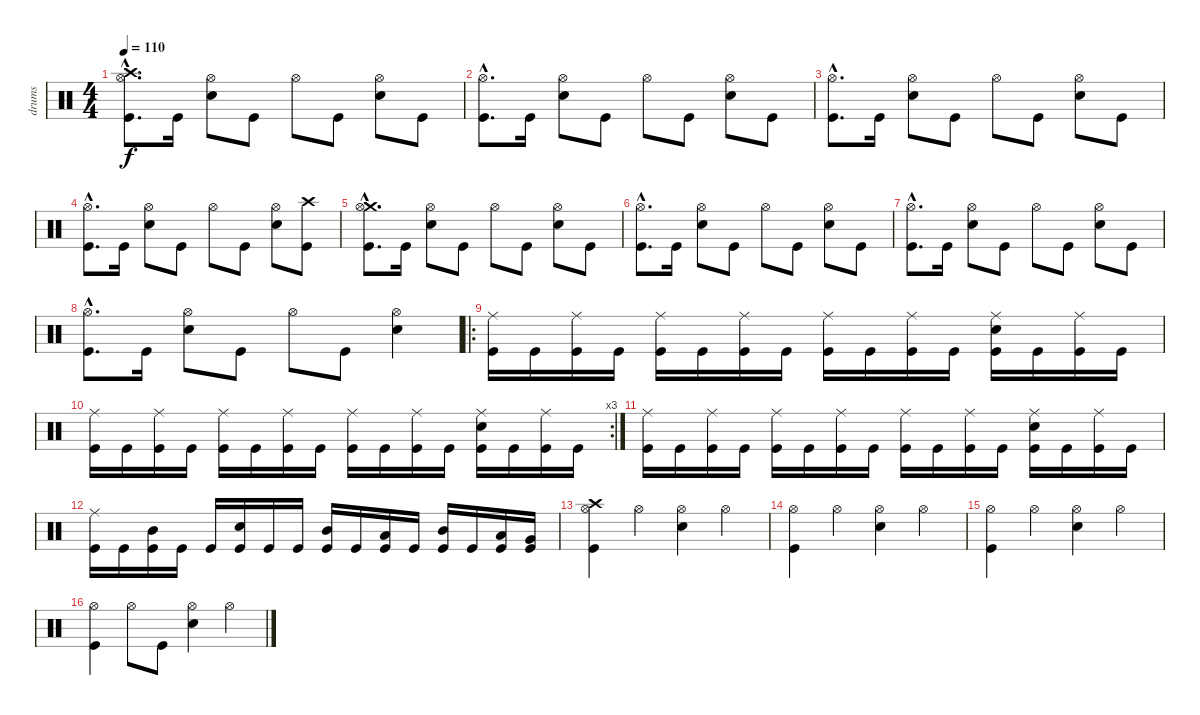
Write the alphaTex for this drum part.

\track ("drums" "drums") {instrument percussion}
\staff {score}
\articulation defaults
\ts (4 4)
\tempo 110
\clef neutral
\ks c
("Crash high (hit)"{hac} "Hi-Hat (open)"{hac} "Kick (hit)"{hac}).8{d dy f} "Kick (hit)".16 ("Hi-Hat (open)" "Snare (hit) 2").8 "Kick (hit)".8 "Hi-Hat (open)".8 "Kick (hit)".8 ("Hi-Hat (open)" "Snare (hit) 2").8 "Kick (hit)".8 |
("Hi-Hat (open)"{hac} "Kick (hit)"{hac}).8{d} "Kick (hit)".16 ("Hi-Hat (open)" "Snare (hit) 2").8 "Kick (hit)".8 "Hi-Hat (open)".8 "Kick (hit)".8 ("Hi-Hat (open)" "Snare (hit) 2").8 "Kick (hit)".8 |
("Hi-Hat (open)"{hac} "Kick (hit)"{hac}).8{d} "Kick (hit)".16 ("Hi-Hat (open)" "Snare (hit) 2").8 "Kick (hit)".8 "Hi-Hat (open)".8 "Kick (hit)".8 ("Hi-Hat (open)" "Snare (hit) 2").8 "Kick (hit)".8 |
("Hi-Hat (open)"{hac} "Kick (hit)"{hac}).8{d} "Kick (hit)".16 ("Hi-Hat (open)" "Snare (hit) 2").8 "Kick (hit)".8 "Hi-Hat (open)".8 "Kick (hit)".8 ("Hi-Hat (open)" "Snare (hit) 2").8 ("Crash high (hit)" "Kick (hit)").8 |
("Crash medium (hit)"{hac} "Hi-Hat (open)"{hac} "Kick (hit)"{hac}).8{d} "Kick (hit)".16 ("Hi-Hat (open)" "Snare (hit) 2").8 "Kick (hit)".8 "Hi-Hat (open)".8 "Kick (hit)".8 ("Hi-Hat (open)" "Snare (hit) 2").8 "Kick (hit)".8 |
("Hi-Hat (open)"{hac} "Kick (hit)"{hac}).8{d} "Kick (hit)".16 ("Hi-Hat (open)" "Snare (hit) 2").8 "Kick (hit)".8 "Hi-Hat (open)".8 "Kick (hit)".8 ("Hi-Hat (open)" "Snare (hit) 2").8 "Kick (hit)".8 |
("Hi-Hat (open)"{hac} "Kick (hit)"{hac}).8{d} "Kick (hit)".16 ("Hi-Hat (open)" "Snare (hit) 2").8 "Kick (hit)".8 "Hi-Hat (open)".8 "Kick (hit)".8 ("Hi-Hat (open)" "Snare (hit) 2").8 "Kick (hit)".8 |
("Hi-Hat (open)"{hac} "Kick (hit)"{hac}).8{d} "Kick (hit)".16 ("Hi-Hat (open)" "Snare (hit) 2").8 "Kick (hit)".8 "Hi-Hat (open)".8 "Kick (hit)".8 ("Hi-Hat (open)" "Snare (hit) 2").4 |
\ro
("Ride (middle)" "Kick (hit)").16 "Kick (hit)".16 ("Ride (middle)" "Kick (hit)").16 "Kick (hit)".16 ("Ride (middle)" "Kick (hit)").16 "Kick (hit)".16 ("Ride (middle)" "Kick (hit)").16 "Kick (hit)".16 ("Ride (middle)" "Kick (hit)").16 "Kick (hit)".16 ("Ride (middle)" "Kick (hit)").16 "Kick (hit)".16 ("Snare (hit) 2" "Ride (middle)" "Kick (hit)").16 "Kick (hit)".16 ("Ride (middle)" "Kick (hit)").16 "Kick (hit)".16 |
\rc 3
("Ride (middle)" "Kick (hit)").16 "Kick (hit)".16 ("Ride (middle)" "Kick (hit)").16 "Kick (hit)".16 ("Ride (middle)" "Kick (hit)").16 "Kick (hit)".16 ("Ride (middle)" "Kick (hit)").16 "Kick (hit)".16 ("Ride (middle)" "Kick (hit)").16 "Kick (hit)".16 ("Ride (middle)" "Kick (hit)").16 "Kick (hit)".16 ("Snare (hit) 2" "Ride (middle)" "Kick (hit)").16 "Kick (hit)".16 ("Ride (middle)" "Kick (hit)").16 "Kick (hit)".16 |
("Ride (middle)" "Kick (hit)").16 "Kick (hit)".16 ("Ride (middle)" "Kick (hit)").16 "Kick (hit)".16 ("Ride (middle)" "Kick (hit)").16 "Kick (hit)".16 ("Ride (middle)" "Kick (hit)").16 "Kick (hit)".16 ("Ride (middle)" "Kick (hit)").16 "Kick (hit)".16 ("Ride (middle)" "Kick (hit)").16 "Kick (hit)".16 ("Snare (hit) 2" "Ride (middle)" "Kick (hit)").16 "Kick (hit)".16 ("Ride (middle)" "Kick (hit)").16 "Kick (hit)".16 |
("Ride (middle)" "Kick (hit)").16 "Kick (hit)".16 ("Mid Tom (hit)" "Kick (hit)").16 "Kick (hit)".16 "Kick (hit)".16 ("Snare (hit) 2" "Kick (hit)").16 "Kick (hit)".16 "Kick (hit)".16 ("Mid Tom (hit)" "Kick (hit)").16 "Kick (hit)".16 ("Low Tom (hit)" "Kick (hit)").16 "Kick (hit)".16 ("Mid Tom (hit)" "Kick (hit)").16 "Kick (hit)".16 ("Low Tom (hit)" "Kick (hit)").16 ("Very Low Tom (hit)" "Kick (hit)").16 |
("Crash high (hit)" "Hi-Hat (open)" "Kick (hit)").4 "Hi-Hat (open)".4 ("Hi-Hat (open)" "Snare (hit) 2").4 "Hi-Hat (open)".4 |
("Hi-Hat (open)" "Kick (hit)").4 "Hi-Hat (open)".4 ("Hi-Hat (open)" "Snare (hit) 2").4 "Hi-Hat (open)".4 |
("Hi-Hat (open)" "Kick (hit)").4 "Hi-Hat (open)".4 ("Hi-Hat (open)" "Snare (hit) 2").4 "Hi-Hat (open)".4 |
("Hi-Hat (open)" "Kick (hit)").4 "Hi-Hat (open)".8 "Kick (hit)".8 ("Hi-Hat (open)" "Snare (hit) 2").4 "Hi-Hat (open)".4
